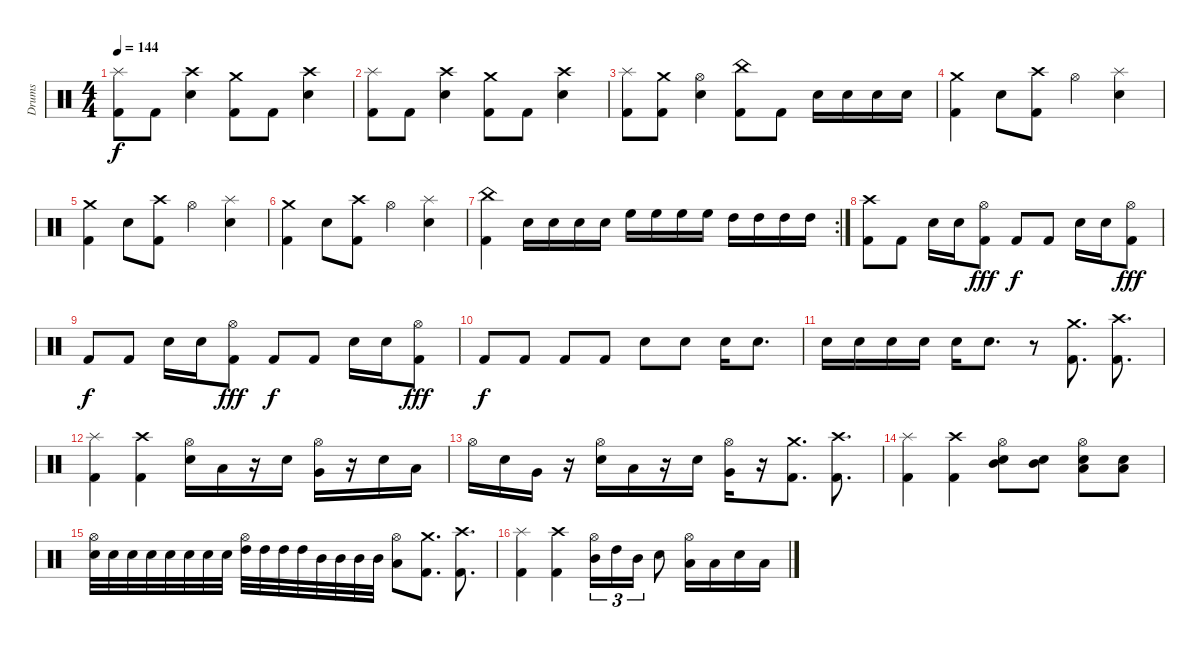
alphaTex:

\track ("Drums" "Drums") {instrument percussion}
\staff {score}
\articulation defaults
\ts (4 4)
\tempo 144
\clef neutral
\ks c
("Kick (hit) 2" "Splash (hit)").8{dy f} "Kick (hit) 2".8 ("Snare (hit) 2" "Crash high (hit)").4 ("Kick (hit) 2" "Crash medium (hit)").8 "Kick (hit) 2".8 ("Snare (hit) 2" "Crash high (hit)").4 |
("Kick (hit) 2" "Splash (hit)").8 "Kick (hit) 2".8 ("Snare (hit) 2" "Crash high (hit)").4 ("Kick (hit) 2" "Crash medium (hit)").8 "Kick (hit) 2".8 ("Snare (hit) 2" "Crash high (hit)").4 |
("Kick (hit) 2" "Splash (hit)").8 ("Kick (hit) 2" "Crash medium (hit)").8 ("Snare (hit) 2" "Hi-Hat (open)").4 ("Kick (hit) 2" "China (hit)").8 "Kick (hit) 2".8 "Snare (hit) 2".16 "Snare (hit) 2".16 "Snare (hit) 2".16 "Snare (hit) 2".16 |
("Kick (hit) 2" "Crash medium (hit)").4 "Snare (hit) 2".8 ("Kick (hit) 2" "Crash high (hit)").8 "Hi-Hat (open)".4 ("Snare (hit) 2" "Splash (hit)").4 |
("Kick (hit) 2" "Crash medium (hit)").4 "Snare (hit) 2".8 ("Kick (hit) 2" "Crash high (hit)").8 "Hi-Hat (open)".4 ("Snare (hit) 2" "Splash (hit)").4 |
("Kick (hit) 2" "Crash medium (hit)").4 "Snare (hit) 2".8 ("Kick (hit) 2" "Crash high (hit)").8 "Hi-Hat (open)".4 ("Snare (hit) 2" "Splash (hit)").4 |
\rc 2
("Kick (hit) 2" "China (hit)").4 "Snare (hit) 2".16 "Snare (hit) 2".16 "Snare (hit) 2".16 "Snare (hit) 2".16 "High Floor Tom (hit)".16 "High Floor Tom (hit)".16 "High Floor Tom (hit)".16 "High Floor Tom (hit)".16 "High Tom (hit)".16 "High Tom (hit)".16 "High Tom (hit)".16 "High Tom (hit)".16 |
("Kick (hit) 2" "Crash high (hit)").8 "Kick (hit) 2".8 "Snare (hit) 2".16 "Snare (hit) 2".16 ("Kick (hit) 2" "Hi-Hat (open)").8{dy fff} "Kick (hit) 2".8{dy f} "Kick (hit) 2".8 "Snare (hit) 2".16 "Snare (hit) 2".16 ("Kick (hit) 2" "Hi-Hat (open)").8{dy fff} |
"Kick (hit) 2".8{dy f} "Kick (hit) 2".8 "Snare (hit) 2".16 "Snare (hit) 2".16 ("Kick (hit) 2" "Hi-Hat (open)").8{dy fff} "Kick (hit) 2".8{dy f} "Kick (hit) 2".8 "Snare (hit) 2".16 "Snare (hit) 2".16 ("Kick (hit) 2" "Hi-Hat (open)").8{dy fff} |
"Kick (hit) 2".8{dy f} "Kick (hit) 2".8 "Kick (hit) 2".8 "Kick (hit) 2".8 "Snare (hit) 2".8 "Snare (hit) 2".8 "Snare (hit) 2".16 "Snare (hit) 2".8{d} |
"Snare (hit) 2".16 "Snare (hit) 2".16 "Snare (hit) 2".16 "Snare (hit) 2".16 "Snare (hit) 2".16 "Snare (hit) 2".8{d} r.8 ("Kick (hit) 2" "Crash medium (hit)").8{d} ("Kick (hit) 2" "Crash high (hit)").8{d} |
("Kick (hit) 2" "Splash (hit)").4 ("Kick (hit) 2" "Crash high (hit)").4 ("Snare (hit) 2" "Hi-Hat (open)").16 "Low Floor Tom (hit)".16 r.16 "Snare (hit) 2".16 ("Very Low Tom (hit)" "Hi-Hat (open)").16 r.16 "Snare (hit) 2".16 "Low Floor Tom (hit)".16 |
"Hi-Hat (open)".16 "Snare (hit) 2".16 "Very Low Tom (hit)".16 r.16 ("Snare (hit) 2" "Hi-Hat (open)").16 "Low Floor Tom (hit)".16 r.16 "Snare (hit) 2".16 ("Very Low Tom (hit)" "Hi-Hat (open)").16 r.16 ("Kick (hit) 2" "Crash medium (hit)").8{d} ("Kick (hit) 2" "Crash high (hit)").8{d} |
("Kick (hit) 2" "Splash (hit)").4 ("Kick (hit) 2" "Crash high (hit)").4 ("Mid Tom (hit)" "Snare (hit) 2" "Hi-Hat (open)").8 ("Mid Tom (hit)" "Snare (hit) 2").8 ("Low Tom (hit)" "Snare (hit) 2" "Hi-Hat (open)").8 ("Low Tom (hit)" "Snare (hit) 2").8 |
("Snare (hit) 2" "Hi-Hat (open)").32 "Snare (hit) 2".32 "Snare (hit) 2".32 "Snare (hit) 2".32 "Snare (hit) 2".32 "Snare (hit) 2".32 "Snare (hit) 2".32 "Snare (hit) 2".32 ("High Tom (hit)" "Hi-Hat (open)").32 "High Tom (hit)".32 "High Tom (hit)".32 "High Tom (hit)".32 "Mid Tom (hit)".32 "Mid Tom (hit)".32 "Mid Tom (hit)".32 "Mid Tom (hit)".32 ("Low Floor Tom (hit)" "Hi-Hat (open)").8 ("Kick (hit) 2" "Crash medium (hit)").8{d} ("Kick (hit) 2" "Crash high (hit)").8{d} |
("Kick (hit) 2" "Splash (hit)").4 ("Kick (hit) 2" "Crash high (hit)").4 ("Mid Tom (hit)" "Hi-Hat (open)").16{tu (3 2)} "High Tom (hit)".16{tu (3 2)} "Mid Tom (hit)".16{tu (3 2)} "Snare (hit) 2".8 ("Low Tom (hit)" "Hi-Hat (open)").16 "Low Floor Tom (hit)".16 "Snare (hit) 2".16 "Low Tom (hit)".16
